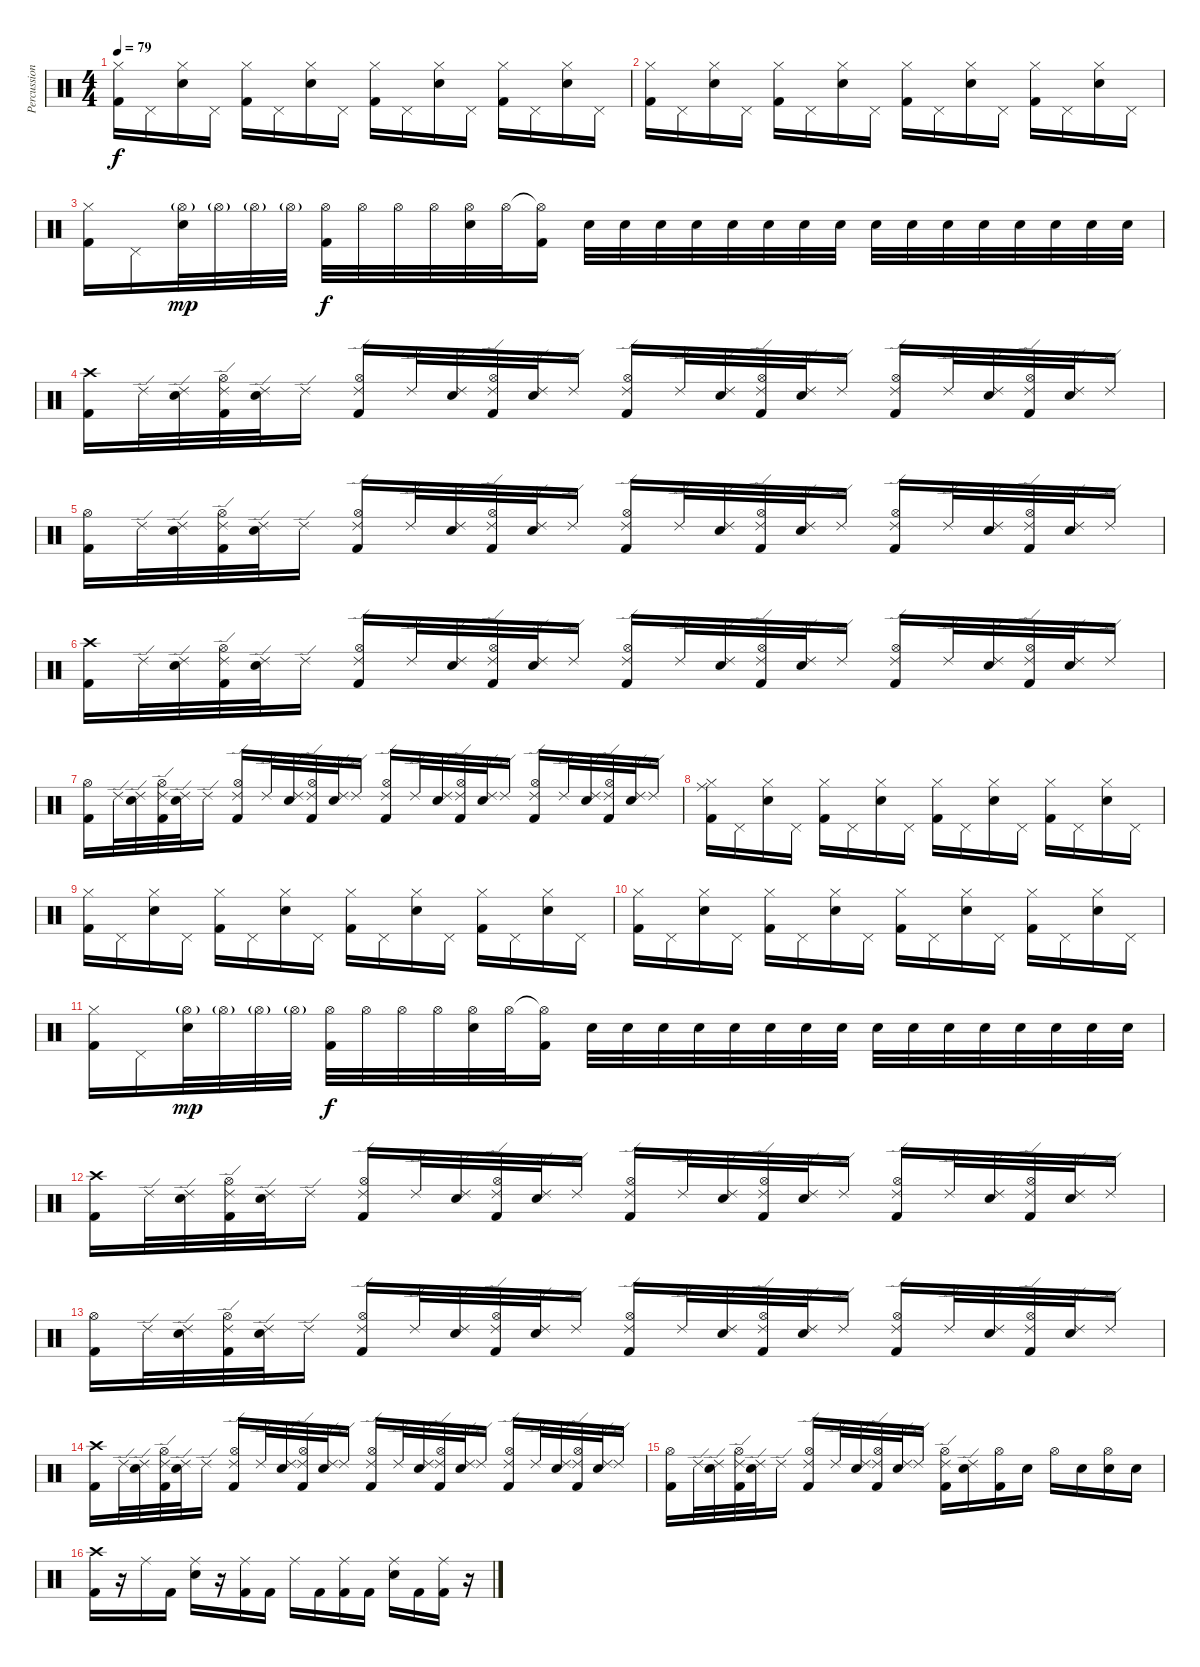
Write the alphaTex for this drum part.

\track ("Percussion" "Percussion") {instrument percussion}
\staff {score}
\articulation defaults
\ts (4 4)
\tempo 79
\clef neutral
\ks c
("Hi-Hat (closed)" "Kick (hit) 2").16{dy f} "Pedal Hi-Hat (hit)".16 ("Hi-Hat (closed)" "Electric Snare (hit)").16 "Pedal Hi-Hat (hit)".16 ("Hi-Hat (closed)" "Kick (hit) 2").16 "Pedal Hi-Hat (hit)".16 ("Hi-Hat (closed)" "Electric Snare (hit)").16 "Pedal Hi-Hat (hit)".16 ("Hi-Hat (closed)" "Kick (hit) 2").16 "Pedal Hi-Hat (hit)".16 ("Hi-Hat (closed)" "Electric Snare (hit)").16 "Pedal Hi-Hat (hit)".16 ("Hi-Hat (closed)" "Kick (hit) 2").16 "Pedal Hi-Hat (hit)".16 ("Hi-Hat (closed)" "Electric Snare (hit)").16 "Pedal Hi-Hat (hit)".16 |
("Hi-Hat (closed)" "Kick (hit) 2").16 "Pedal Hi-Hat (hit)".16 ("Hi-Hat (closed)" "Electric Snare (hit)").16 "Pedal Hi-Hat (hit)".16 ("Hi-Hat (closed)" "Kick (hit) 2").16 "Pedal Hi-Hat (hit)".16 ("Hi-Hat (closed)" "Electric Snare (hit)").16 "Pedal Hi-Hat (hit)".16 ("Hi-Hat (closed)" "Kick (hit) 2").16 "Pedal Hi-Hat (hit)".16 ("Hi-Hat (closed)" "Electric Snare (hit)").16 "Pedal Hi-Hat (hit)".16 ("Hi-Hat (closed)" "Kick (hit) 2").16 "Pedal Hi-Hat (hit)".16 ("Hi-Hat (closed)" "Electric Snare (hit)").16 "Pedal Hi-Hat (hit)".16 |
("Hi-Hat (closed)" "Kick (hit) 2").16 "Pedal Hi-Hat (hit)".16 ("Hi-Hat (open)"{g} "Electric Snare (hit)").32{dy mp} "Hi-Hat (open)"{g}.32 "Hi-Hat (open)"{g}.32 "Hi-Hat (open)"{g}.32 ("Hi-Hat (open)" "Kick (hit) 2").32{dy f} "Hi-Hat (open)".32 "Hi-Hat (open)".32 "Hi-Hat (open)".32 ("Hi-Hat (open)" "Electric Snare (hit)").32 "Hi-Hat (open)".32 ("Hi-Hat (open)"{t} "Kick (hit) 2").16 "Electric Snare (hit)".32 "Electric Snare (hit)".32 "Electric Snare (hit)".32 "Electric Snare (hit)".32 "Electric Snare (hit)".32 "Electric Snare (hit)".32 "Electric Snare (hit)".32 "Electric Snare (hit)".32 "Electric Snare (hit)".32 "Electric Snare (hit)".32 "Electric Snare (hit)".32 "Electric Snare (hit)".32 "Electric Snare (hit)".32 "Electric Snare (hit)".32 "Electric Snare (hit)".32 "Electric Snare (hit)".32 |
("Crash high (hit)" "Kick (hit) 2").16 "Ride (edge) 2".32 ("Ride (edge) 2" "Electric Snare (hit)").32 ("Hi-Hat (open)" "Ride (edge) 2" "Kick (hit) 2").32 ("Ride (edge) 2" "Electric Snare (hit)").32 "Ride (edge) 2".16 ("Hi-Hat (open)" "Ride (edge) 2" "Kick (hit) 2").16 "Ride (edge) 2".32 ("Ride (edge) 2" "Electric Snare (hit)").32 ("Hi-Hat (open)" "Ride (edge) 2" "Kick (hit) 2").32 ("Ride (edge) 2" "Electric Snare (hit)").32 "Ride (edge) 2".16 ("Hi-Hat (open)" "Ride (edge) 2" "Kick (hit) 2").16 "Ride (edge) 2".32 ("Ride (edge) 2" "Electric Snare (hit)").32 ("Hi-Hat (open)" "Ride (edge) 2" "Kick (hit) 2").32 ("Ride (edge) 2" "Electric Snare (hit)").32 "Ride (edge) 2".16 ("Hi-Hat (open)" "Ride (edge) 2" "Kick (hit) 2").16 "Ride (edge) 2".32 ("Ride (edge) 2" "Electric Snare (hit)").32 ("Hi-Hat (open)" "Ride (edge) 2" "Kick (hit) 2").32 ("Ride (edge) 2" "Electric Snare (hit)").32 "Ride (edge) 2".16 |
("Hi-Hat (open)" "Kick (hit) 2").16 "Ride (edge) 2".32 ("Ride (edge) 2" "Electric Snare (hit)").32 ("Hi-Hat (open)" "Ride (edge) 2" "Kick (hit) 2").32 ("Ride (edge) 2" "Electric Snare (hit)").32 "Ride (edge) 2".16 ("Hi-Hat (open)" "Ride (edge) 2" "Kick (hit) 2").16 "Ride (edge) 2".32 ("Ride (edge) 2" "Electric Snare (hit)").32 ("Hi-Hat (open)" "Ride (edge) 2" "Kick (hit) 2").32 ("Ride (edge) 2" "Electric Snare (hit)").32 "Ride (edge) 2".16 ("Hi-Hat (open)" "Ride (edge) 2" "Kick (hit) 2").16 "Ride (edge) 2".32 ("Ride (edge) 2" "Electric Snare (hit)").32 ("Hi-Hat (open)" "Ride (edge) 2" "Kick (hit) 2").32 ("Ride (edge) 2" "Electric Snare (hit)").32 "Ride (edge) 2".16 ("Hi-Hat (open)" "Ride (edge) 2" "Kick (hit) 2").16 "Ride (edge) 2".32 ("Ride (edge) 2" "Electric Snare (hit)").32 ("Hi-Hat (open)" "Ride (edge) 2" "Kick (hit) 2").32 ("Ride (edge) 2" "Electric Snare (hit)").32 "Ride (edge) 2".16 |
("Crash high (hit)" "Kick (hit) 2").16 "Ride (edge) 2".32 ("Ride (edge) 2" "Electric Snare (hit)").32 ("Hi-Hat (open)" "Ride (edge) 2" "Kick (hit) 2").32 ("Ride (edge) 2" "Electric Snare (hit)").32 "Ride (edge) 2".16 ("Hi-Hat (open)" "Ride (edge) 2" "Kick (hit) 2").16 "Ride (edge) 2".32 ("Ride (edge) 2" "Electric Snare (hit)").32 ("Hi-Hat (open)" "Ride (edge) 2" "Kick (hit) 2").32 ("Ride (edge) 2" "Electric Snare (hit)").32 "Ride (edge) 2".16 ("Hi-Hat (open)" "Ride (edge) 2" "Kick (hit) 2").16 "Ride (edge) 2".32 ("Ride (edge) 2" "Electric Snare (hit)").32 ("Hi-Hat (open)" "Ride (edge) 2" "Kick (hit) 2").32 ("Ride (edge) 2" "Electric Snare (hit)").32 "Ride (edge) 2".16 ("Hi-Hat (open)" "Ride (edge) 2" "Kick (hit) 2").16 "Ride (edge) 2".32 ("Ride (edge) 2" "Electric Snare (hit)").32 ("Hi-Hat (open)" "Ride (edge) 2" "Kick (hit) 2").32 ("Ride (edge) 2" "Electric Snare (hit)").32 "Ride (edge) 2".16 |
("Hi-Hat (open)" "Kick (hit) 2").16 "Ride (edge) 2".32 ("Ride (edge) 2" "Electric Snare (hit)").32 ("Hi-Hat (open)" "Ride (edge) 2" "Kick (hit) 2").32 ("Ride (edge) 2" "Electric Snare (hit)").32 "Ride (edge) 2".16 ("Hi-Hat (open)" "Ride (edge) 2" "Kick (hit) 2").16 "Ride (edge) 2".32 ("Ride (edge) 2" "Electric Snare (hit)").32 ("Hi-Hat (open)" "Ride (edge) 2" "Kick (hit) 2").32 ("Ride (edge) 2" "Electric Snare (hit)").32 "Ride (edge) 2".16 ("Hi-Hat (open)" "Ride (edge) 2" "Kick (hit) 2").16 "Ride (edge) 2".32 ("Ride (edge) 2" "Electric Snare (hit)").32 ("Hi-Hat (open)" "Ride (edge) 2" "Kick (hit) 2").32 ("Ride (edge) 2" "Electric Snare (hit)").32 "Ride (edge) 2".16 ("Hi-Hat (open)" "Ride (edge) 2" "Kick (hit) 2").16 "Ride (edge) 2".32 ("Ride (edge) 2" "Electric Snare (hit)").32 ("Hi-Hat (open)" "Ride (edge) 2" "Kick (hit) 2").32 ("Ride (edge) 2" "Electric Snare (hit)").32 "Ride (edge) 2".16 |
("Hi-Hat (closed)" "Ride (middle)" "Kick (hit) 2").16 "Pedal Hi-Hat (hit)".16 ("Hi-Hat (closed)" "Electric Snare (hit)").16 "Pedal Hi-Hat (hit)".16 ("Hi-Hat (closed)" "Kick (hit) 2").16 "Pedal Hi-Hat (hit)".16 ("Hi-Hat (closed)" "Electric Snare (hit)").16 "Pedal Hi-Hat (hit)".16 ("Hi-Hat (closed)" "Kick (hit) 2").16 "Pedal Hi-Hat (hit)".16 ("Hi-Hat (closed)" "Electric Snare (hit)").16 "Pedal Hi-Hat (hit)".16 ("Hi-Hat (closed)" "Kick (hit) 2").16 "Pedal Hi-Hat (hit)".16 ("Hi-Hat (closed)" "Electric Snare (hit)").16 "Pedal Hi-Hat (hit)".16 |
("Hi-Hat (closed)" "Kick (hit) 2").16 "Pedal Hi-Hat (hit)".16 ("Hi-Hat (closed)" "Electric Snare (hit)").16 "Pedal Hi-Hat (hit)".16 ("Hi-Hat (closed)" "Kick (hit) 2").16 "Pedal Hi-Hat (hit)".16 ("Hi-Hat (closed)" "Electric Snare (hit)").16 "Pedal Hi-Hat (hit)".16 ("Hi-Hat (closed)" "Kick (hit) 2").16 "Pedal Hi-Hat (hit)".16 ("Hi-Hat (closed)" "Electric Snare (hit)").16 "Pedal Hi-Hat (hit)".16 ("Hi-Hat (closed)" "Kick (hit) 2").16 "Pedal Hi-Hat (hit)".16 ("Hi-Hat (closed)" "Electric Snare (hit)").16 "Pedal Hi-Hat (hit)".16 |
("Hi-Hat (closed)" "Kick (hit) 2").16 "Pedal Hi-Hat (hit)".16 ("Hi-Hat (closed)" "Electric Snare (hit)").16 "Pedal Hi-Hat (hit)".16 ("Hi-Hat (closed)" "Kick (hit) 2").16 "Pedal Hi-Hat (hit)".16 ("Hi-Hat (closed)" "Electric Snare (hit)").16 "Pedal Hi-Hat (hit)".16 ("Hi-Hat (closed)" "Kick (hit) 2").16 "Pedal Hi-Hat (hit)".16 ("Hi-Hat (closed)" "Electric Snare (hit)").16 "Pedal Hi-Hat (hit)".16 ("Hi-Hat (closed)" "Kick (hit) 2").16 "Pedal Hi-Hat (hit)".16 ("Hi-Hat (closed)" "Electric Snare (hit)").16 "Pedal Hi-Hat (hit)".16 |
("Hi-Hat (closed)" "Kick (hit) 2").16 "Pedal Hi-Hat (hit)".16 ("Hi-Hat (open)"{g} "Electric Snare (hit)").32{dy mp} "Hi-Hat (open)"{g}.32 "Hi-Hat (open)"{g}.32 "Hi-Hat (open)"{g}.32 ("Hi-Hat (open)" "Kick (hit) 2").32{dy f} "Hi-Hat (open)".32 "Hi-Hat (open)".32 "Hi-Hat (open)".32 ("Hi-Hat (open)" "Electric Snare (hit)").32 "Hi-Hat (open)".32 ("Hi-Hat (open)"{t} "Kick (hit) 2").16 "Electric Snare (hit)".32 "Electric Snare (hit)".32 "Electric Snare (hit)".32 "Electric Snare (hit)".32 "Electric Snare (hit)".32 "Electric Snare (hit)".32 "Electric Snare (hit)".32 "Electric Snare (hit)".32 "Electric Snare (hit)".32 "Electric Snare (hit)".32 "Electric Snare (hit)".32 "Electric Snare (hit)".32 "Electric Snare (hit)".32 "Electric Snare (hit)".32 "Electric Snare (hit)".32 "Electric Snare (hit)".32 |
("Crash high (hit)" "Kick (hit) 2").16 "Ride (edge) 2".32 ("Ride (edge) 2" "Electric Snare (hit)").32 ("Hi-Hat (open)" "Ride (edge) 2" "Kick (hit) 2").32 ("Ride (edge) 2" "Electric Snare (hit)").32 "Ride (edge) 2".16 ("Hi-Hat (open)" "Ride (edge) 2" "Kick (hit) 2").16 "Ride (edge) 2".32 ("Ride (edge) 2" "Electric Snare (hit)").32 ("Hi-Hat (open)" "Ride (edge) 2" "Kick (hit) 2").32 ("Ride (edge) 2" "Electric Snare (hit)").32 "Ride (edge) 2".16 ("Hi-Hat (open)" "Ride (edge) 2" "Kick (hit) 2").16 "Ride (edge) 2".32 ("Ride (edge) 2" "Electric Snare (hit)").32 ("Hi-Hat (open)" "Ride (edge) 2" "Kick (hit) 2").32 ("Ride (edge) 2" "Electric Snare (hit)").32 "Ride (edge) 2".16 ("Hi-Hat (open)" "Ride (edge) 2" "Kick (hit) 2").16 "Ride (edge) 2".32 ("Ride (edge) 2" "Electric Snare (hit)").32 ("Hi-Hat (open)" "Ride (edge) 2" "Kick (hit) 2").32 ("Ride (edge) 2" "Electric Snare (hit)").32 "Ride (edge) 2".16 |
("Hi-Hat (open)" "Kick (hit) 2").16 "Ride (edge) 2".32 ("Ride (edge) 2" "Electric Snare (hit)").32 ("Hi-Hat (open)" "Ride (edge) 2" "Kick (hit) 2").32 ("Ride (edge) 2" "Electric Snare (hit)").32 "Ride (edge) 2".16 ("Hi-Hat (open)" "Ride (edge) 2" "Kick (hit) 2").16 "Ride (edge) 2".32 ("Ride (edge) 2" "Electric Snare (hit)").32 ("Hi-Hat (open)" "Ride (edge) 2" "Kick (hit) 2").32 ("Ride (edge) 2" "Electric Snare (hit)").32 "Ride (edge) 2".16 ("Hi-Hat (open)" "Ride (edge) 2" "Kick (hit) 2").16 "Ride (edge) 2".32 ("Ride (edge) 2" "Electric Snare (hit)").32 ("Hi-Hat (open)" "Ride (edge) 2" "Kick (hit) 2").32 ("Ride (edge) 2" "Electric Snare (hit)").32 "Ride (edge) 2".16 ("Hi-Hat (open)" "Ride (edge) 2" "Kick (hit) 2").16 "Ride (edge) 2".32 ("Ride (edge) 2" "Electric Snare (hit)").32 ("Hi-Hat (open)" "Ride (edge) 2" "Kick (hit) 2").32 ("Ride (edge) 2" "Electric Snare (hit)").32 "Ride (edge) 2".16 |
("Crash high (hit)" "Kick (hit) 2").16 "Ride (edge) 2".32 ("Ride (edge) 2" "Electric Snare (hit)").32 ("Hi-Hat (open)" "Ride (edge) 2" "Kick (hit) 2").32 ("Ride (edge) 2" "Electric Snare (hit)").32 "Ride (edge) 2".16 ("Hi-Hat (open)" "Ride (edge) 2" "Kick (hit) 2").16 "Ride (edge) 2".32 ("Ride (edge) 2" "Electric Snare (hit)").32 ("Hi-Hat (open)" "Ride (edge) 2" "Kick (hit) 2").32 ("Ride (edge) 2" "Electric Snare (hit)").32 "Ride (edge) 2".16 ("Hi-Hat (open)" "Ride (edge) 2" "Kick (hit) 2").16 "Ride (edge) 2".32 ("Ride (edge) 2" "Electric Snare (hit)").32 ("Hi-Hat (open)" "Ride (edge) 2" "Kick (hit) 2").32 ("Ride (edge) 2" "Electric Snare (hit)").32 "Ride (edge) 2".16 ("Hi-Hat (open)" "Ride (edge) 2" "Kick (hit) 2").16 "Ride (edge) 2".32 ("Ride (edge) 2" "Electric Snare (hit)").32 ("Hi-Hat (open)" "Ride (edge) 2" "Kick (hit) 2").32 ("Ride (edge) 2" "Electric Snare (hit)").32 "Ride (edge) 2".16 |
("Hi-Hat (open)" "Kick (hit) 2").16 "Ride (edge) 2".32 ("Ride (edge) 2" "Electric Snare (hit)").32 ("Hi-Hat (open)" "Ride (edge) 2" "Kick (hit) 2").32 ("Ride (edge) 2" "Electric Snare (hit)").32 "Ride (edge) 2".16 ("Hi-Hat (open)" "Ride (edge) 2" "Kick (hit) 2").16 "Ride (edge) 2".32 ("Ride (edge) 2" "Electric Snare (hit)").32 ("Hi-Hat (open)" "Ride (edge) 2" "Kick (hit) 2").32 ("Ride (edge) 2" "Electric Snare (hit)").32 "Ride (edge) 2".16 ("Hi-Hat (open)" "Ride (edge) 2" "Kick (hit) 2").16 ("Ride (edge) 2" "Electric Snare (hit)").16 ("Hi-Hat (open)" "Kick (hit) 2").16 "Electric Snare (hit)".16 "Hi-Hat (open)".16 "Electric Snare (hit)".16 ("Hi-Hat (open)" "Electric Snare (hit)").16 "Electric Snare (hit)".16 |
("Crash high (hit)" "Kick (hit) 2").16 r.16 "Ride (middle)".16 "Kick (hit) 2".16 ("Ride (middle)" "Electric Snare (hit)").16 r.16 ("Ride (middle)" "Kick (hit) 2").16 "Kick (hit) 2".16 "Ride (middle)".16 "Kick (hit) 2".16 ("Ride (middle)" "Kick (hit) 2").16 "Kick (hit) 2".16 ("Ride (middle)" "Electric Snare (hit)").16 "Kick (hit) 2".16 ("Ride (middle)" "Kick (hit) 2").16 r.16
